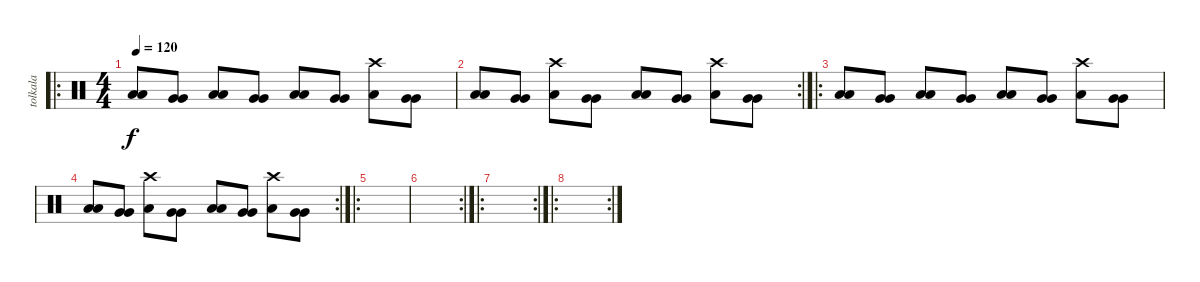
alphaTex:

\track ("tolkala" "tolkala") {instrument percussion}
\staff {score}
\articulation defaults
\ro
\ts (4 4)
\tempo 120
\clef neutral
\ks c
("Low Tom (hit)" "Low Tom (hit)").8{dy f} ("Very Low Tom (hit)" "Very Low Tom (hit)").8 ("Low Tom (hit)" "Low Tom (hit)").8 ("Very Low Tom (hit)" "Very Low Tom (hit)").8 ("Low Tom (hit)" "Low Tom (hit)").8 ("Very Low Tom (hit)" "Very Low Tom (hit)").8 ("Crash high (hit)" "Low Tom (hit)").8 ("Very Low Tom (hit)" "Very Low Tom (hit)").8 |
\rc 2
("Low Tom (hit)" "Low Tom (hit)").8 ("Very Low Tom (hit)" "Very Low Tom (hit)").8 ("Crash high (hit)" "Low Tom (hit)").8 ("Very Low Tom (hit)" "Very Low Tom (hit)").8 ("Low Tom (hit)" "Low Tom (hit)").8 ("Very Low Tom (hit)" "Very Low Tom (hit)").8 ("Crash high (hit)" "Low Tom (hit)").8 ("Very Low Tom (hit)" "Very Low Tom (hit)").8 |
\ro
("Low Tom (hit)" "Low Tom (hit)").8 ("Very Low Tom (hit)" "Very Low Tom (hit)").8 ("Low Tom (hit)" "Low Tom (hit)").8 ("Very Low Tom (hit)" "Very Low Tom (hit)").8 ("Low Tom (hit)" "Low Tom (hit)").8 ("Very Low Tom (hit)" "Very Low Tom (hit)").8 ("Crash high (hit)" "Low Tom (hit)").8 ("Very Low Tom (hit)" "Very Low Tom (hit)").8 |
\rc 2
("Low Tom (hit)" "Low Tom (hit)").8 ("Very Low Tom (hit)" "Very Low Tom (hit)").8 ("Crash high (hit)" "Low Tom (hit)").8 ("Very Low Tom (hit)" "Very Low Tom (hit)").8 ("Low Tom (hit)" "Low Tom (hit)").8 ("Very Low Tom (hit)" "Very Low Tom (hit)").8 ("Crash high (hit)" "Low Tom (hit)").8 ("Very Low Tom (hit)" "Very Low Tom (hit)").8 |
\ro
|
\rc 2
|
\ro
\rc 2
|
\ro
\rc 2
